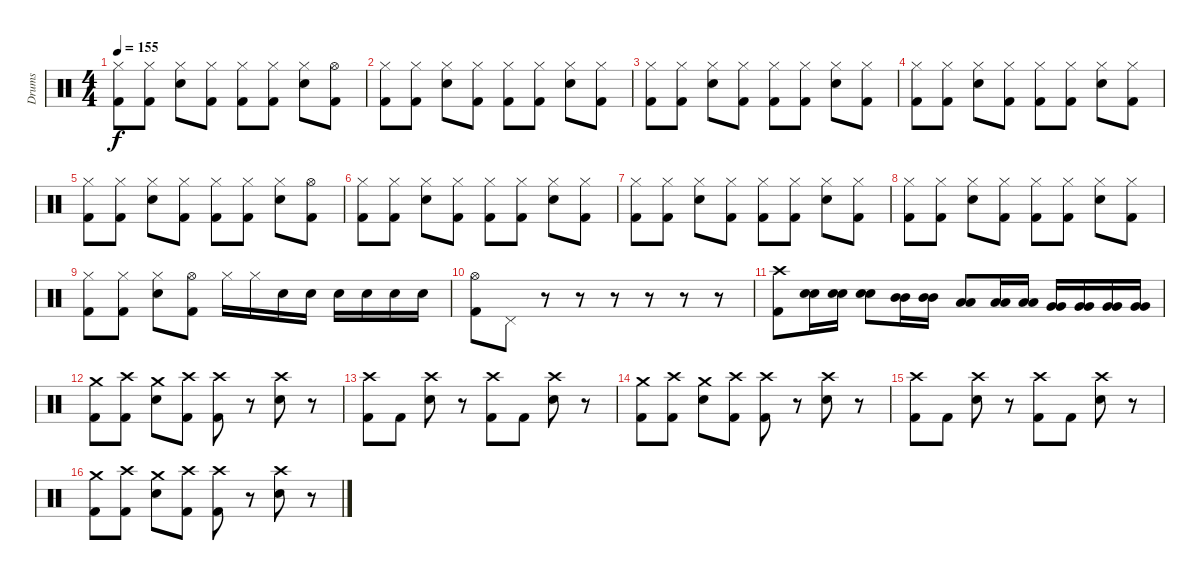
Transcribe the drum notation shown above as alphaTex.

\track ("Drums" "Drums") {instrument percussion}
\staff {score}
\articulation defaults
\ts (4 4)
\tempo 155
\clef neutral
\ks c
("Hi-Hat (closed)" "Kick (hit) 2").8{dy f} ("Hi-Hat (closed)" "Kick (hit) 2").8 ("Hi-Hat (closed)" "Snare (hit) 2").8 ("Hi-Hat (closed)" "Kick (hit) 2").8 ("Hi-Hat (closed)" "Kick (hit) 2").8 ("Hi-Hat (closed)" "Kick (hit) 2").8 ("Hi-Hat (closed)" "Snare (hit) 2").8 ("Hi-Hat (open)" "Kick (hit) 2").8 |
("Hi-Hat (closed)" "Kick (hit) 2").8 ("Hi-Hat (closed)" "Kick (hit) 2").8 ("Hi-Hat (closed)" "Snare (hit) 2").8 ("Hi-Hat (closed)" "Kick (hit) 2").8 ("Hi-Hat (closed)" "Kick (hit) 2").8 ("Hi-Hat (closed)" "Kick (hit) 2").8 ("Hi-Hat (closed)" "Snare (hit) 2").8 ("Hi-Hat (closed)" "Kick (hit) 2").8 |
("Hi-Hat (closed)" "Kick (hit) 2").8 ("Hi-Hat (closed)" "Kick (hit) 2").8 ("Hi-Hat (closed)" "Snare (hit) 2").8 ("Hi-Hat (closed)" "Kick (hit) 2").8 ("Hi-Hat (closed)" "Kick (hit) 2").8 ("Hi-Hat (closed)" "Kick (hit) 2").8 ("Hi-Hat (closed)" "Snare (hit) 2").8 ("Hi-Hat (closed)" "Kick (hit) 2").8 |
("Hi-Hat (closed)" "Kick (hit) 2").8 ("Hi-Hat (closed)" "Kick (hit) 2").8 ("Hi-Hat (closed)" "Snare (hit) 2").8 ("Hi-Hat (closed)" "Kick (hit) 2").8 ("Hi-Hat (closed)" "Kick (hit) 2").8 ("Hi-Hat (closed)" "Kick (hit) 2").8 ("Hi-Hat (closed)" "Snare (hit) 2").8 ("Hi-Hat (closed)" "Kick (hit) 2").8 |
("Hi-Hat (closed)" "Kick (hit) 2").8 ("Hi-Hat (closed)" "Kick (hit) 2").8 ("Hi-Hat (closed)" "Snare (hit) 2").8 ("Hi-Hat (closed)" "Kick (hit) 2").8 ("Hi-Hat (closed)" "Kick (hit) 2").8 ("Hi-Hat (closed)" "Kick (hit) 2").8 ("Hi-Hat (closed)" "Snare (hit) 2").8 ("Hi-Hat (open)" "Kick (hit) 2").8 |
("Hi-Hat (closed)" "Kick (hit) 2").8 ("Hi-Hat (closed)" "Kick (hit) 2").8 ("Hi-Hat (closed)" "Snare (hit) 2").8 ("Hi-Hat (closed)" "Kick (hit) 2").8 ("Hi-Hat (closed)" "Kick (hit) 2").8 ("Hi-Hat (closed)" "Kick (hit) 2").8 ("Hi-Hat (closed)" "Snare (hit) 2").8 ("Hi-Hat (closed)" "Kick (hit) 2").8 |
("Hi-Hat (closed)" "Kick (hit) 2").8 ("Hi-Hat (closed)" "Kick (hit) 2").8 ("Hi-Hat (closed)" "Snare (hit) 2").8 ("Hi-Hat (closed)" "Kick (hit) 2").8 ("Hi-Hat (closed)" "Kick (hit) 2").8 ("Hi-Hat (closed)" "Kick (hit) 2").8 ("Hi-Hat (closed)" "Snare (hit) 2").8 ("Hi-Hat (closed)" "Kick (hit) 2").8 |
("Hi-Hat (closed)" "Kick (hit) 2").8 ("Hi-Hat (closed)" "Kick (hit) 2").8 ("Hi-Hat (closed)" "Snare (hit) 2").8 ("Hi-Hat (closed)" "Kick (hit) 2").8 ("Hi-Hat (closed)" "Kick (hit) 2").8 ("Hi-Hat (closed)" "Kick (hit) 2").8 ("Hi-Hat (closed)" "Snare (hit) 2").8 ("Hi-Hat (closed)" "Kick (hit) 2").8 |
("Hi-Hat (closed)" "Kick (hit) 2").8 ("Hi-Hat (closed)" "Kick (hit) 2").8 ("Hi-Hat (closed)" "Snare (hit) 2").8 ("Hi-Hat (open)" "Kick (hit) 2").8 "Hi-Hat (closed)".16 "Hi-Hat (closed)".16 "Snare (hit) 2".16 "Snare (hit) 2".16 "Snare (hit) 2".16 "Snare (hit) 2".16 "Snare (hit) 2".16 "Snare (hit) 2".16 |
("Hi-Hat (open)" "Kick (hit) 2").8 "Pedal Hi-Hat (hit)".8 r.8 r.8 r.8 r.8 r.8 r.8 |
("Crash high (hit)" "Kick (hit) 2").8 ("Snare (hit) 2" "Snare (hit) 2").16 ("Snare (hit) 2" "Snare (hit) 2").16 ("Snare (hit) 2" "Snare (hit) 2").8 ("Mid Tom (hit)" "Mid Tom (hit)").16 ("Mid Tom (hit)" "Mid Tom (hit)").16 ("Low Tom (hit)" "Low Tom (hit)").8 ("Low Tom (hit)" "Low Tom (hit)").16 ("Low Tom (hit)" "Low Tom (hit)").16 ("Very Low Tom (hit)" "Very Low Tom (hit)").16 ("Very Low Tom (hit)" "Very Low Tom (hit)").16 ("Very Low Tom (hit)" "Very Low Tom (hit)").16 ("Very Low Tom (hit)" "Very Low Tom (hit)").16 |
("Crash medium (hit)" "Kick (hit) 2").8 ("Crash high (hit)" "Kick (hit) 2").8 ("Crash medium (hit)" "Snare (hit) 2").8 ("Crash high (hit)" "Kick (hit) 2").8 ("Crash high (hit)" "Kick (hit) 2").8 r.8 ("Crash high (hit)" "Snare (hit) 2").8 r.8 |
("Crash high (hit)" "Kick (hit) 2").8 "Kick (hit) 2".8 ("Crash high (hit)" "Snare (hit) 2").8 r.8 ("Crash high (hit)" "Kick (hit) 2").8 "Kick (hit) 2".8 ("Crash high (hit)" "Snare (hit) 2").8 r.8 |
("Crash medium (hit)" "Kick (hit) 2").8 ("Crash high (hit)" "Kick (hit) 2").8 ("Crash medium (hit)" "Snare (hit) 2").8 ("Crash high (hit)" "Kick (hit) 2").8 ("Crash high (hit)" "Kick (hit) 2").8 r.8 ("Crash high (hit)" "Snare (hit) 2").8 r.8 |
("Crash high (hit)" "Kick (hit) 2").8 "Kick (hit) 2".8 ("Crash high (hit)" "Snare (hit) 2").8 r.8 ("Crash high (hit)" "Kick (hit) 2").8 "Kick (hit) 2".8 ("Crash high (hit)" "Snare (hit) 2").8 r.8 |
("Crash medium (hit)" "Kick (hit) 2").8 ("Crash high (hit)" "Kick (hit) 2").8 ("Crash medium (hit)" "Snare (hit) 2").8 ("Crash high (hit)" "Kick (hit) 2").8 ("Crash high (hit)" "Kick (hit) 2").8 r.8 ("Crash high (hit)" "Snare (hit) 2").8 r.8
